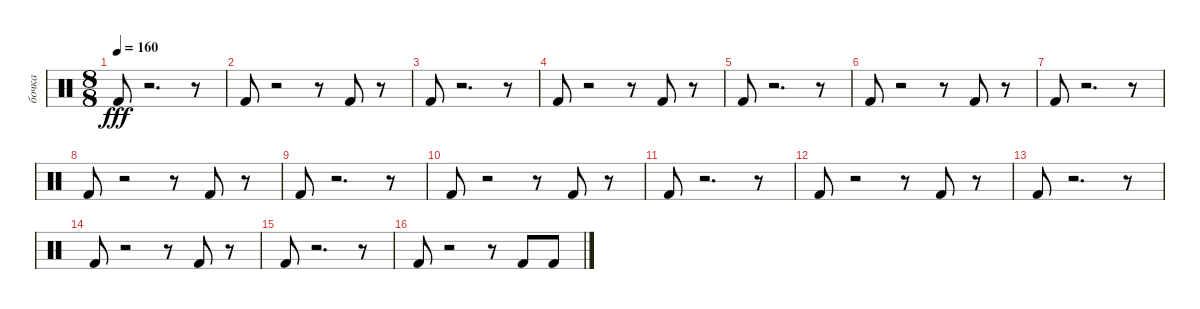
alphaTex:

\track ("бочка" "бочка") {instrument percussion}
\staff {score}
\articulation defaults
\ts (8 8)
\tempo 160
\clef neutral
\ks c "Kick (hit) 2".8{dy fff}
r.2{d} r.8 |
"Kick (hit) 2".8 r.2 r.8 "Kick (hit) 2".8 r.8 |
"Kick (hit) 2".8 r.2{d} r.8 |
"Kick (hit) 2".8 r.2 r.8 "Kick (hit) 2".8 r.8 |
"Kick (hit) 2".8 r.2{d} r.8 |
"Kick (hit) 2".8 r.2 r.8 "Kick (hit) 2".8 r.8 |
"Kick (hit) 2".8 r.2{d} r.8 |
"Kick (hit) 2".8 r.2 r.8 "Kick (hit) 2".8 r.8 |
"Kick (hit) 2".8 r.2{d} r.8 |
"Kick (hit) 2".8 r.2 r.8 "Kick (hit) 2".8 r.8 |
"Kick (hit) 2".8 r.2{d} r.8 |
"Kick (hit) 2".8 r.2 r.8 "Kick (hit) 2".8 r.8 |
"Kick (hit) 2".8 r.2{d} r.8 |
"Kick (hit) 2".8 r.2 r.8 "Kick (hit) 2".8 r.8 |
"Kick (hit) 2".8 r.2{d} r.8 |
"Kick (hit) 2".8 r.2 r.8 "Kick (hit) 2".8 "Kick (hit) 2".8
